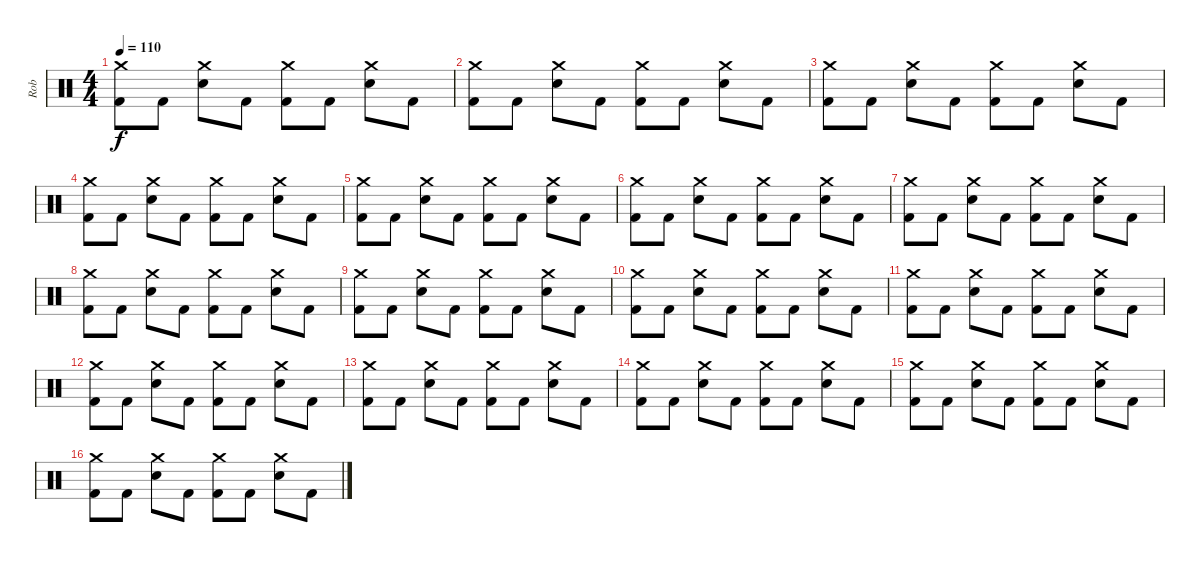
\track ("Rob" "Rob") {instrument percussion}
\staff {score}
\articulation defaults
\ts (4 4)
\tempo 110
\clef neutral
\ks c
("Crash medium (hit)" "Kick (hit) 2").8{dy f} "Kick (hit) 2".8 ("Crash medium (hit)" "Electric Snare (hit)").8 "Kick (hit) 2".8 ("Crash medium (hit)" "Kick (hit) 2").8 "Kick (hit) 2".8 ("Crash medium (hit)" "Electric Snare (hit)").8 "Kick (hit) 2".8 |
("Crash medium (hit)" "Kick (hit) 2").8 "Kick (hit) 2".8 ("Crash medium (hit)" "Electric Snare (hit)").8 "Kick (hit) 2".8 ("Crash medium (hit)" "Kick (hit) 2").8 "Kick (hit) 2".8 ("Crash medium (hit)" "Electric Snare (hit)").8 "Kick (hit) 2".8 |
("Crash medium (hit)" "Kick (hit) 2").8 "Kick (hit) 2".8 ("Crash medium (hit)" "Electric Snare (hit)").8 "Kick (hit) 2".8 ("Crash medium (hit)" "Kick (hit) 2").8 "Kick (hit) 2".8 ("Crash medium (hit)" "Electric Snare (hit)").8 "Kick (hit) 2".8 |
("Crash medium (hit)" "Kick (hit) 2").8 "Kick (hit) 2".8 ("Crash medium (hit)" "Electric Snare (hit)").8 "Kick (hit) 2".8 ("Crash medium (hit)" "Kick (hit) 2").8 "Kick (hit) 2".8 ("Crash medium (hit)" "Electric Snare (hit)").8 "Kick (hit) 2".8 |
("Crash medium (hit)" "Kick (hit) 2").8 "Kick (hit) 2".8 ("Crash medium (hit)" "Electric Snare (hit)").8 "Kick (hit) 2".8 ("Crash medium (hit)" "Kick (hit) 2").8 "Kick (hit) 2".8 ("Crash medium (hit)" "Electric Snare (hit)").8 "Kick (hit) 2".8 |
("Crash medium (hit)" "Kick (hit) 2").8 "Kick (hit) 2".8 ("Crash medium (hit)" "Electric Snare (hit)").8 "Kick (hit) 2".8 ("Crash medium (hit)" "Kick (hit) 2").8 "Kick (hit) 2".8 ("Crash medium (hit)" "Electric Snare (hit)").8 "Kick (hit) 2".8 |
("Crash medium (hit)" "Kick (hit) 2").8 "Kick (hit) 2".8 ("Crash medium (hit)" "Electric Snare (hit)").8 "Kick (hit) 2".8 ("Crash medium (hit)" "Kick (hit) 2").8 "Kick (hit) 2".8 ("Crash medium (hit)" "Electric Snare (hit)").8 "Kick (hit) 2".8 |
("Crash medium (hit)" "Kick (hit) 2").8 "Kick (hit) 2".8 ("Crash medium (hit)" "Electric Snare (hit)").8 "Kick (hit) 2".8 ("Crash medium (hit)" "Kick (hit) 2").8 "Kick (hit) 2".8 ("Crash medium (hit)" "Electric Snare (hit)").8 "Kick (hit) 2".8 |
("Crash medium (hit)" "Kick (hit) 2").8 "Kick (hit) 2".8 ("Crash medium (hit)" "Electric Snare (hit)").8 "Kick (hit) 2".8 ("Crash medium (hit)" "Kick (hit) 2").8 "Kick (hit) 2".8 ("Crash medium (hit)" "Electric Snare (hit)").8 "Kick (hit) 2".8 |
("Crash medium (hit)" "Kick (hit) 2").8 "Kick (hit) 2".8 ("Crash medium (hit)" "Electric Snare (hit)").8 "Kick (hit) 2".8 ("Crash medium (hit)" "Kick (hit) 2").8 "Kick (hit) 2".8 ("Crash medium (hit)" "Electric Snare (hit)").8 "Kick (hit) 2".8 |
("Crash medium (hit)" "Kick (hit) 2").8 "Kick (hit) 2".8 ("Crash medium (hit)" "Electric Snare (hit)").8 "Kick (hit) 2".8 ("Crash medium (hit)" "Kick (hit) 2").8 "Kick (hit) 2".8 ("Crash medium (hit)" "Electric Snare (hit)").8 "Kick (hit) 2".8 |
("Crash medium (hit)" "Kick (hit) 2").8 "Kick (hit) 2".8 ("Crash medium (hit)" "Electric Snare (hit)").8 "Kick (hit) 2".8 ("Crash medium (hit)" "Kick (hit) 2").8 "Kick (hit) 2".8 ("Crash medium (hit)" "Electric Snare (hit)").8 "Kick (hit) 2".8 |
("Crash medium (hit)" "Kick (hit) 2").8 "Kick (hit) 2".8 ("Crash medium (hit)" "Electric Snare (hit)").8 "Kick (hit) 2".8 ("Crash medium (hit)" "Kick (hit) 2").8 "Kick (hit) 2".8 ("Crash medium (hit)" "Electric Snare (hit)").8 "Kick (hit) 2".8 |
("Crash medium (hit)" "Kick (hit) 2").8 "Kick (hit) 2".8 ("Crash medium (hit)" "Electric Snare (hit)").8 "Kick (hit) 2".8 ("Crash medium (hit)" "Kick (hit) 2").8 "Kick (hit) 2".8 ("Crash medium (hit)" "Electric Snare (hit)").8 "Kick (hit) 2".8 |
("Crash medium (hit)" "Kick (hit) 2").8 "Kick (hit) 2".8 ("Crash medium (hit)" "Electric Snare (hit)").8 "Kick (hit) 2".8 ("Crash medium (hit)" "Kick (hit) 2").8 "Kick (hit) 2".8 ("Crash medium (hit)" "Electric Snare (hit)").8 "Kick (hit) 2".8 |
("Crash medium (hit)" "Kick (hit) 2").8 "Kick (hit) 2".8 ("Crash medium (hit)" "Electric Snare (hit)").8 "Kick (hit) 2".8 ("Crash medium (hit)" "Kick (hit) 2").8 "Kick (hit) 2".8 ("Crash medium (hit)" "Electric Snare (hit)").8 "Kick (hit) 2".8
